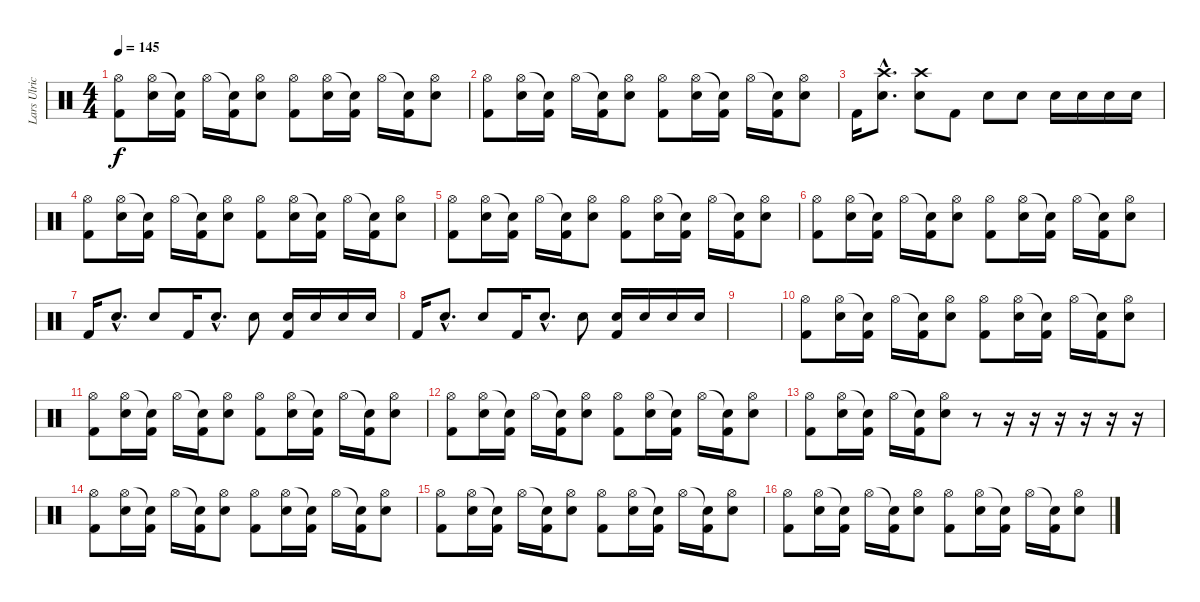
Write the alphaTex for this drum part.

\track ("Lars Ulrich" "Lars Ulric") {instrument percussion}
\staff {score}
\articulation defaults
\ts (4 4)
\tempo 145
\clef neutral
\ks c
("Hi-Hat (open)" "Kick (hit) 2").8{dy f} ("Hi-Hat (open)" "Electric Snare (hit)").16 ("Snare (hit)"{t} "Kick (hit) 2").16 "Hi-Hat (open)".16 ("Snare (hit)"{t} "Kick (hit) 2").16 ("Hi-Hat (open)" "Electric Snare (hit)").8 ("Hi-Hat (open)" "Kick (hit) 2").8 ("Hi-Hat (open)" "Electric Snare (hit)").16 ("Snare (hit)"{t} "Kick (hit) 2").16 "Hi-Hat (open)".16 ("Snare (hit)"{t} "Kick (hit) 2").16 ("Hi-Hat (open)" "Electric Snare (hit)").8 |
("Hi-Hat (open)" "Kick (hit) 2").8 ("Hi-Hat (open)" "Electric Snare (hit)").16 ("Snare (hit)"{t} "Kick (hit) 2").16 "Hi-Hat (open)".16 ("Snare (hit)"{t} "Kick (hit) 2").16 ("Hi-Hat (open)" "Electric Snare (hit)").8 ("Hi-Hat (open)" "Kick (hit) 2").8 ("Hi-Hat (open)" "Electric Snare (hit)").16 ("Snare (hit)"{t} "Kick (hit) 2").16 "Hi-Hat (open)".16 ("Snare (hit)"{t} "Kick (hit) 2").16 ("Hi-Hat (open)" "Electric Snare (hit)").8 |
"Kick (hit) 2".16 ("Crash high (hit)"{hac} "Electric Snare (hit)"{hac}).8{d} ("Crash high (hit)" "Electric Snare (hit)").8 "Kick (hit) 2".8 "Electric Snare (hit)".8 "Electric Snare (hit)".8 "Electric Snare (hit)".16 "Electric Snare (hit)".16 "Electric Snare (hit)".16 "Electric Snare (hit)".16 |
("Hi-Hat (open)" "Kick (hit) 2").8 ("Hi-Hat (open)" "Electric Snare (hit)").16 ("Snare (hit)"{t} "Kick (hit) 2").16 "Hi-Hat (open)".16 ("Snare (hit)"{t} "Kick (hit) 2").16 ("Hi-Hat (open)" "Electric Snare (hit)").8 ("Hi-Hat (open)" "Kick (hit) 2").8 ("Hi-Hat (open)" "Electric Snare (hit)").16 ("Snare (hit)"{t} "Kick (hit) 2").16 "Hi-Hat (open)".16 ("Snare (hit)"{t} "Kick (hit) 2").16 ("Hi-Hat (open)" "Electric Snare (hit)").8 |
("Hi-Hat (open)" "Kick (hit) 2").8 ("Hi-Hat (open)" "Electric Snare (hit)").16 ("Snare (hit)"{t} "Kick (hit) 2").16 "Hi-Hat (open)".16 ("Snare (hit)"{t} "Kick (hit) 2").16 ("Hi-Hat (open)" "Electric Snare (hit)").8 ("Hi-Hat (open)" "Kick (hit) 2").8 ("Hi-Hat (open)" "Electric Snare (hit)").16 ("Snare (hit)"{t} "Kick (hit) 2").16 "Hi-Hat (open)".16 ("Snare (hit)"{t} "Kick (hit) 2").16 ("Hi-Hat (open)" "Electric Snare (hit)").8 |
("Hi-Hat (open)" "Kick (hit) 2").8 ("Hi-Hat (open)" "Electric Snare (hit)").16 ("Snare (hit)"{t} "Kick (hit) 2").16 "Hi-Hat (open)".16 ("Snare (hit)"{t} "Kick (hit) 2").16 ("Hi-Hat (open)" "Electric Snare (hit)").8 ("Hi-Hat (open)" "Kick (hit) 2").8 ("Hi-Hat (open)" "Electric Snare (hit)").16 ("Snare (hit)"{t} "Kick (hit) 2").16 "Hi-Hat (open)".16 ("Snare (hit)"{t} "Kick (hit) 2").16 ("Hi-Hat (open)" "Electric Snare (hit)").8 |
"Kick (hit) 2".16 "Electric Snare (hit)"{hac}.8{d} "Electric Snare (hit)".8 "Kick (hit) 2".16 "Electric Snare (hit)"{hac}.8{d} "Electric Snare (hit)".8 ("Electric Snare (hit)" "Kick (hit) 2").16 "Electric Snare (hit)".16 "Electric Snare (hit)".16 "Electric Snare (hit)".16 |
"Kick (hit) 2".16 "Electric Snare (hit)"{hac}.8{d} "Electric Snare (hit)".8 "Kick (hit) 2".16 "Electric Snare (hit)"{hac}.8{d} "Electric Snare (hit)".8 ("Electric Snare (hit)" "Kick (hit) 2").16 "Electric Snare (hit)".16 "Electric Snare (hit)".16 "Electric Snare (hit)".16 |
|
("Hi-Hat (open)" "Kick (hit) 2").8 ("Hi-Hat (open)" "Electric Snare (hit)").16 ("Snare (hit)"{t} "Kick (hit) 2").16 "Hi-Hat (open)".16 ("Snare (hit)"{t} "Kick (hit) 2").16 ("Hi-Hat (open)" "Electric Snare (hit)").8 ("Hi-Hat (open)" "Kick (hit) 2").8 ("Hi-Hat (open)" "Electric Snare (hit)").16 ("Snare (hit)"{t} "Kick (hit) 2").16 "Hi-Hat (open)".16 ("Snare (hit)"{t} "Kick (hit) 2").16 ("Hi-Hat (open)" "Electric Snare (hit)").8 |
("Hi-Hat (open)" "Kick (hit) 2").8 ("Hi-Hat (open)" "Electric Snare (hit)").16 ("Snare (hit)"{t} "Kick (hit) 2").16 "Hi-Hat (open)".16 ("Snare (hit)"{t} "Kick (hit) 2").16 ("Hi-Hat (open)" "Electric Snare (hit)").8 ("Hi-Hat (open)" "Kick (hit) 2").8 ("Hi-Hat (open)" "Electric Snare (hit)").16 ("Snare (hit)"{t} "Kick (hit) 2").16 "Hi-Hat (open)".16 ("Snare (hit)"{t} "Kick (hit) 2").16 ("Hi-Hat (open)" "Electric Snare (hit)").8 |
("Hi-Hat (open)" "Kick (hit) 2").8 ("Hi-Hat (open)" "Electric Snare (hit)").16 ("Snare (hit)"{t} "Kick (hit) 2").16 "Hi-Hat (open)".16 ("Snare (hit)"{t} "Kick (hit) 2").16 ("Hi-Hat (open)" "Electric Snare (hit)").8 ("Hi-Hat (open)" "Kick (hit) 2").8 ("Hi-Hat (open)" "Electric Snare (hit)").16 ("Snare (hit)"{t} "Kick (hit) 2").16 "Hi-Hat (open)".16 ("Snare (hit)"{t} "Kick (hit) 2").16 ("Hi-Hat (open)" "Electric Snare (hit)").8 |
("Hi-Hat (open)" "Kick (hit) 2").8 ("Hi-Hat (open)" "Electric Snare (hit)").16 ("Snare (hit)"{t} "Kick (hit) 2").16 "Hi-Hat (open)".16 ("Snare (hit)"{t} "Kick (hit) 2").16 ("Hi-Hat (open)" "Electric Snare (hit)").8 r.8 r.16 r.16 r.16 r.16 r.16 r.16 |
("Hi-Hat (open)" "Kick (hit) 2").8 ("Hi-Hat (open)" "Electric Snare (hit)").16 ("Snare (hit)"{t} "Kick (hit) 2").16 "Hi-Hat (open)".16 ("Snare (hit)"{t} "Kick (hit) 2").16 ("Hi-Hat (open)" "Electric Snare (hit)").8 ("Hi-Hat (open)" "Kick (hit) 2").8 ("Hi-Hat (open)" "Electric Snare (hit)").16 ("Snare (hit)"{t} "Kick (hit) 2").16 "Hi-Hat (open)".16 ("Snare (hit)"{t} "Kick (hit) 2").16 ("Hi-Hat (open)" "Electric Snare (hit)").8 |
("Hi-Hat (open)" "Kick (hit) 2").8 ("Hi-Hat (open)" "Electric Snare (hit)").16 ("Snare (hit)"{t} "Kick (hit) 2").16 "Hi-Hat (open)".16 ("Snare (hit)"{t} "Kick (hit) 2").16 ("Hi-Hat (open)" "Electric Snare (hit)").8 ("Hi-Hat (open)" "Kick (hit) 2").8 ("Hi-Hat (open)" "Electric Snare (hit)").16 ("Snare (hit)"{t} "Kick (hit) 2").16 "Hi-Hat (open)".16 ("Snare (hit)"{t} "Kick (hit) 2").16 ("Hi-Hat (open)" "Electric Snare (hit)").8 |
("Hi-Hat (open)" "Kick (hit) 2").8 ("Hi-Hat (open)" "Electric Snare (hit)").16 ("Snare (hit)"{t} "Kick (hit) 2").16 "Hi-Hat (open)".16 ("Snare (hit)"{t} "Kick (hit) 2").16 ("Hi-Hat (open)" "Electric Snare (hit)").8 ("Hi-Hat (open)" "Kick (hit) 2").8 ("Hi-Hat (open)" "Electric Snare (hit)").16 ("Snare (hit)"{t} "Kick (hit) 2").16 "Hi-Hat (open)".16 ("Snare (hit)"{t} "Kick (hit) 2").16 ("Hi-Hat (open)" "Electric Snare (hit)").8
